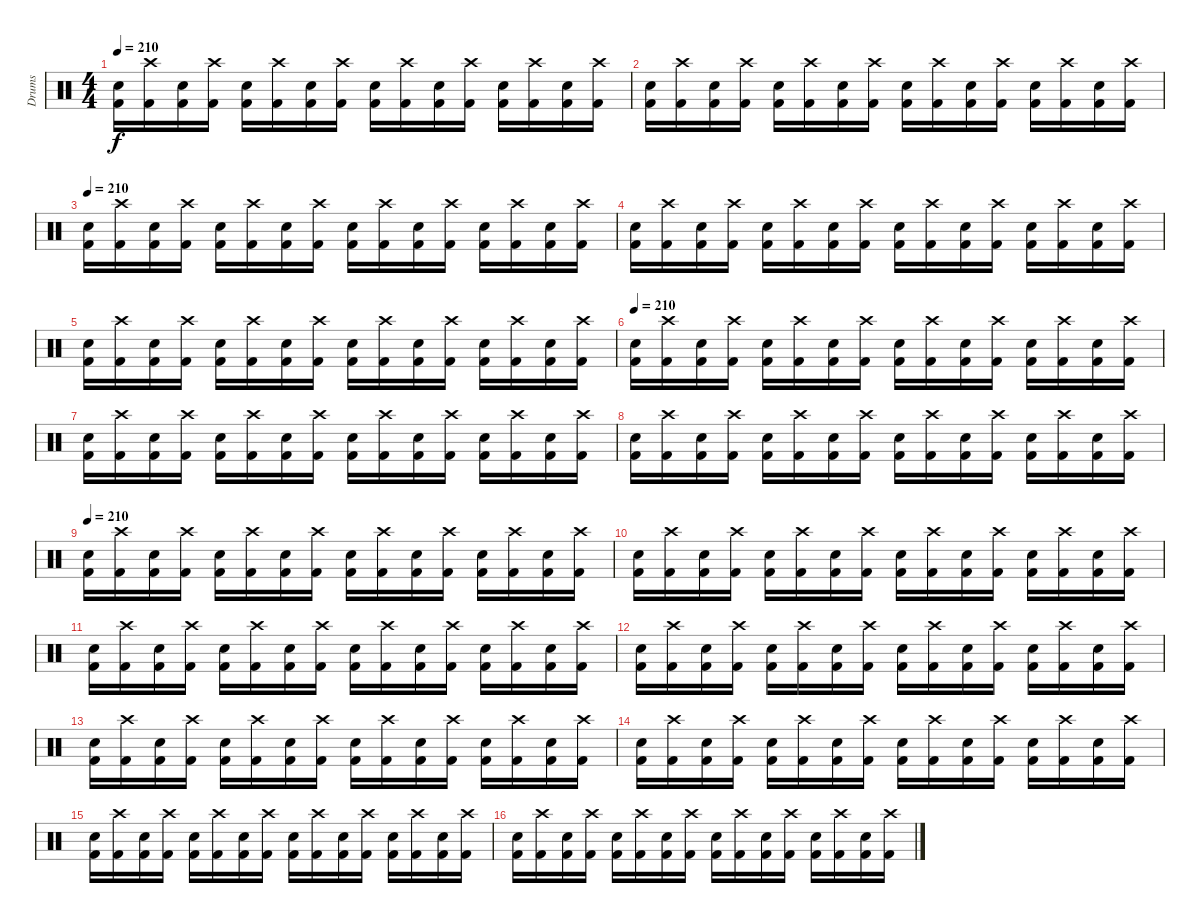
\track ("Drums" "Drums") {instrument percussion}
\staff {score}
\articulation defaults
\ts (4 4)
\tempo 210
\clef neutral
\ks c
("Snare (hit) 2" "Kick (hit) 2").16{dy f} ("Crash high (hit)" "Kick (hit) 2").16 ("Snare (hit) 2" "Kick (hit) 2").16 ("Crash high (hit)" "Kick (hit) 2").16 ("Snare (hit) 2" "Kick (hit) 2").16 ("Crash high (hit)" "Kick (hit) 2").16 ("Snare (hit) 2" "Kick (hit) 2").16 ("Crash high (hit)" "Kick (hit) 2").16 ("Snare (hit) 2" "Kick (hit) 2").16 ("Crash high (hit)" "Kick (hit) 2").16 ("Snare (hit) 2" "Kick (hit) 2").16 ("Crash high (hit)" "Kick (hit) 2").16 ("Snare (hit) 2" "Kick (hit) 2").16 ("Crash high (hit)" "Kick (hit) 2").16 ("Snare (hit) 2" "Kick (hit) 2").16 ("Crash high (hit)" "Kick (hit) 2").16 |
("Snare (hit) 2" "Kick (hit) 2").16 ("Crash high (hit)" "Kick (hit) 2").16 ("Snare (hit) 2" "Kick (hit) 2").16 ("Crash high (hit)" "Kick (hit) 2").16 ("Snare (hit) 2" "Kick (hit) 2").16 ("Crash high (hit)" "Kick (hit) 2").16 ("Snare (hit) 2" "Kick (hit) 2").16 ("Crash high (hit)" "Kick (hit) 2").16 ("Snare (hit) 2" "Kick (hit) 2").16 ("Crash high (hit)" "Kick (hit) 2").16 ("Snare (hit) 2" "Kick (hit) 2").16 ("Crash high (hit)" "Kick (hit) 2").16 ("Snare (hit) 2" "Kick (hit) 2").16 ("Crash high (hit)" "Kick (hit) 2").16 ("Snare (hit) 2" "Kick (hit) 2").16 ("Crash high (hit)" "Kick (hit) 2").16 |
\tempo 210
("Snare (hit) 2" "Kick (hit) 2").16 ("Crash high (hit)" "Kick (hit) 2").16 ("Snare (hit) 2" "Kick (hit) 2").16 ("Crash high (hit)" "Kick (hit) 2").16 ("Snare (hit) 2" "Kick (hit) 2").16 ("Crash high (hit)" "Kick (hit) 2").16 ("Snare (hit) 2" "Kick (hit) 2").16 ("Crash high (hit)" "Kick (hit) 2").16 ("Snare (hit) 2" "Kick (hit) 2").16 ("Crash high (hit)" "Kick (hit) 2").16 ("Snare (hit) 2" "Kick (hit) 2").16 ("Crash high (hit)" "Kick (hit) 2").16 ("Snare (hit) 2" "Kick (hit) 2").16 ("Crash high (hit)" "Kick (hit) 2").16 ("Snare (hit) 2" "Kick (hit) 2").16 ("Crash high (hit)" "Kick (hit) 2").16 |
("Snare (hit) 2" "Kick (hit) 2").16 ("Crash high (hit)" "Kick (hit) 2").16 ("Snare (hit) 2" "Kick (hit) 2").16 ("Crash high (hit)" "Kick (hit) 2").16 ("Snare (hit) 2" "Kick (hit) 2").16 ("Crash high (hit)" "Kick (hit) 2").16 ("Snare (hit) 2" "Kick (hit) 2").16 ("Crash high (hit)" "Kick (hit) 2").16 ("Snare (hit) 2" "Kick (hit) 2").16 ("Crash high (hit)" "Kick (hit) 2").16 ("Snare (hit) 2" "Kick (hit) 2").16 ("Crash high (hit)" "Kick (hit) 2").16 ("Snare (hit) 2" "Kick (hit) 2").16 ("Crash high (hit)" "Kick (hit) 2").16 ("Snare (hit) 2" "Kick (hit) 2").16 ("Crash high (hit)" "Kick (hit) 2").16 |
("Snare (hit) 2" "Kick (hit) 2").16 ("Crash high (hit)" "Kick (hit) 2").16 ("Snare (hit) 2" "Kick (hit) 2").16 ("Crash high (hit)" "Kick (hit) 2").16 ("Snare (hit) 2" "Kick (hit) 2").16 ("Crash high (hit)" "Kick (hit) 2").16 ("Snare (hit) 2" "Kick (hit) 2").16 ("Crash high (hit)" "Kick (hit) 2").16 ("Snare (hit) 2" "Kick (hit) 2").16 ("Crash high (hit)" "Kick (hit) 2").16 ("Snare (hit) 2" "Kick (hit) 2").16 ("Crash high (hit)" "Kick (hit) 2").16 ("Snare (hit) 2" "Kick (hit) 2").16 ("Crash high (hit)" "Kick (hit) 2").16 ("Snare (hit) 2" "Kick (hit) 2").16 ("Crash high (hit)" "Kick (hit) 2").16 |
\tempo 210
("Snare (hit) 2" "Kick (hit) 2").16 ("Crash high (hit)" "Kick (hit) 2").16 ("Snare (hit) 2" "Kick (hit) 2").16 ("Crash high (hit)" "Kick (hit) 2").16 ("Snare (hit) 2" "Kick (hit) 2").16 ("Crash high (hit)" "Kick (hit) 2").16 ("Snare (hit) 2" "Kick (hit) 2").16 ("Crash high (hit)" "Kick (hit) 2").16 ("Snare (hit) 2" "Kick (hit) 2").16 ("Crash high (hit)" "Kick (hit) 2").16 ("Snare (hit) 2" "Kick (hit) 2").16 ("Crash high (hit)" "Kick (hit) 2").16 ("Snare (hit) 2" "Kick (hit) 2").16 ("Crash high (hit)" "Kick (hit) 2").16 ("Snare (hit) 2" "Kick (hit) 2").16 ("Crash high (hit)" "Kick (hit) 2").16 |
("Snare (hit) 2" "Kick (hit) 2").16 ("Crash high (hit)" "Kick (hit) 2").16 ("Snare (hit) 2" "Kick (hit) 2").16 ("Crash high (hit)" "Kick (hit) 2").16 ("Snare (hit) 2" "Kick (hit) 2").16 ("Crash high (hit)" "Kick (hit) 2").16 ("Snare (hit) 2" "Kick (hit) 2").16 ("Crash high (hit)" "Kick (hit) 2").16 ("Snare (hit) 2" "Kick (hit) 2").16 ("Crash high (hit)" "Kick (hit) 2").16 ("Snare (hit) 2" "Kick (hit) 2").16 ("Crash high (hit)" "Kick (hit) 2").16 ("Snare (hit) 2" "Kick (hit) 2").16 ("Crash high (hit)" "Kick (hit) 2").16 ("Snare (hit) 2" "Kick (hit) 2").16 ("Crash high (hit)" "Kick (hit) 2").16 |
("Snare (hit) 2" "Kick (hit) 2").16 ("Crash high (hit)" "Kick (hit) 2").16 ("Snare (hit) 2" "Kick (hit) 2").16 ("Crash high (hit)" "Kick (hit) 2").16 ("Snare (hit) 2" "Kick (hit) 2").16 ("Crash high (hit)" "Kick (hit) 2").16 ("Snare (hit) 2" "Kick (hit) 2").16 ("Crash high (hit)" "Kick (hit) 2").16 ("Snare (hit) 2" "Kick (hit) 2").16 ("Crash high (hit)" "Kick (hit) 2").16 ("Snare (hit) 2" "Kick (hit) 2").16 ("Crash high (hit)" "Kick (hit) 2").16 ("Snare (hit) 2" "Kick (hit) 2").16 ("Crash high (hit)" "Kick (hit) 2").16 ("Snare (hit) 2" "Kick (hit) 2").16 ("Crash high (hit)" "Kick (hit) 2").16 |
\tempo 210
("Snare (hit) 2" "Kick (hit) 2").16 ("Crash high (hit)" "Kick (hit) 2").16 ("Snare (hit) 2" "Kick (hit) 2").16 ("Crash high (hit)" "Kick (hit) 2").16 ("Snare (hit) 2" "Kick (hit) 2").16 ("Crash high (hit)" "Kick (hit) 2").16 ("Snare (hit) 2" "Kick (hit) 2").16 ("Crash high (hit)" "Kick (hit) 2").16 ("Snare (hit) 2" "Kick (hit) 2").16 ("Crash high (hit)" "Kick (hit) 2").16 ("Snare (hit) 2" "Kick (hit) 2").16 ("Crash high (hit)" "Kick (hit) 2").16 ("Snare (hit) 2" "Kick (hit) 2").16 ("Crash high (hit)" "Kick (hit) 2").16 ("Snare (hit) 2" "Kick (hit) 2").16 ("Crash high (hit)" "Kick (hit) 2").16 |
("Snare (hit) 2" "Kick (hit) 2").16 ("Crash high (hit)" "Kick (hit) 2").16 ("Snare (hit) 2" "Kick (hit) 2").16 ("Crash high (hit)" "Kick (hit) 2").16 ("Snare (hit) 2" "Kick (hit) 2").16 ("Crash high (hit)" "Kick (hit) 2").16 ("Snare (hit) 2" "Kick (hit) 2").16 ("Crash high (hit)" "Kick (hit) 2").16 ("Snare (hit) 2" "Kick (hit) 2").16 ("Crash high (hit)" "Kick (hit) 2").16 ("Snare (hit) 2" "Kick (hit) 2").16 ("Crash high (hit)" "Kick (hit) 2").16 ("Snare (hit) 2" "Kick (hit) 2").16 ("Crash high (hit)" "Kick (hit) 2").16 ("Snare (hit) 2" "Kick (hit) 2").16 ("Crash high (hit)" "Kick (hit) 2").16 |
("Snare (hit) 2" "Kick (hit) 2").16 ("Crash high (hit)" "Kick (hit) 2").16 ("Snare (hit) 2" "Kick (hit) 2").16 ("Crash high (hit)" "Kick (hit) 2").16 ("Snare (hit) 2" "Kick (hit) 2").16 ("Crash high (hit)" "Kick (hit) 2").16 ("Snare (hit) 2" "Kick (hit) 2").16 ("Crash high (hit)" "Kick (hit) 2").16 ("Snare (hit) 2" "Kick (hit) 2").16 ("Crash high (hit)" "Kick (hit) 2").16 ("Snare (hit) 2" "Kick (hit) 2").16 ("Crash high (hit)" "Kick (hit) 2").16 ("Snare (hit) 2" "Kick (hit) 2").16 ("Crash high (hit)" "Kick (hit) 2").16 ("Snare (hit) 2" "Kick (hit) 2").16 ("Crash high (hit)" "Kick (hit) 2").16 |
("Snare (hit) 2" "Kick (hit) 2").16 ("Crash high (hit)" "Kick (hit) 2").16 ("Snare (hit) 2" "Kick (hit) 2").16 ("Crash high (hit)" "Kick (hit) 2").16 ("Snare (hit) 2" "Kick (hit) 2").16 ("Crash high (hit)" "Kick (hit) 2").16 ("Snare (hit) 2" "Kick (hit) 2").16 ("Crash high (hit)" "Kick (hit) 2").16 ("Snare (hit) 2" "Kick (hit) 2").16 ("Crash high (hit)" "Kick (hit) 2").16 ("Snare (hit) 2" "Kick (hit) 2").16 ("Crash high (hit)" "Kick (hit) 2").16 ("Snare (hit) 2" "Kick (hit) 2").16 ("Crash high (hit)" "Kick (hit) 2").16 ("Snare (hit) 2" "Kick (hit) 2").16 ("Crash high (hit)" "Kick (hit) 2").16 |
("Snare (hit) 2" "Kick (hit) 2").16 ("Crash high (hit)" "Kick (hit) 2").16 ("Snare (hit) 2" "Kick (hit) 2").16 ("Crash high (hit)" "Kick (hit) 2").16 ("Snare (hit) 2" "Kick (hit) 2").16 ("Crash high (hit)" "Kick (hit) 2").16 ("Snare (hit) 2" "Kick (hit) 2").16 ("Crash high (hit)" "Kick (hit) 2").16 ("Snare (hit) 2" "Kick (hit) 2").16 ("Crash high (hit)" "Kick (hit) 2").16 ("Snare (hit) 2" "Kick (hit) 2").16 ("Crash high (hit)" "Kick (hit) 2").16 ("Snare (hit) 2" "Kick (hit) 2").16 ("Crash high (hit)" "Kick (hit) 2").16 ("Snare (hit) 2" "Kick (hit) 2").16 ("Crash high (hit)" "Kick (hit) 2").16 |
("Snare (hit) 2" "Kick (hit) 2").16 ("Crash high (hit)" "Kick (hit) 2").16 ("Snare (hit) 2" "Kick (hit) 2").16 ("Crash high (hit)" "Kick (hit) 2").16 ("Snare (hit) 2" "Kick (hit) 2").16 ("Crash high (hit)" "Kick (hit) 2").16 ("Snare (hit) 2" "Kick (hit) 2").16 ("Crash high (hit)" "Kick (hit) 2").16 ("Snare (hit) 2" "Kick (hit) 2").16 ("Crash high (hit)" "Kick (hit) 2").16 ("Snare (hit) 2" "Kick (hit) 2").16 ("Crash high (hit)" "Kick (hit) 2").16 ("Snare (hit) 2" "Kick (hit) 2").16 ("Crash high (hit)" "Kick (hit) 2").16 ("Snare (hit) 2" "Kick (hit) 2").16 ("Crash high (hit)" "Kick (hit) 2").16 |
("Snare (hit) 2" "Kick (hit) 2").16 ("Crash high (hit)" "Kick (hit) 2").16 ("Snare (hit) 2" "Kick (hit) 2").16 ("Crash high (hit)" "Kick (hit) 2").16 ("Snare (hit) 2" "Kick (hit) 2").16 ("Crash high (hit)" "Kick (hit) 2").16 ("Snare (hit) 2" "Kick (hit) 2").16 ("Crash high (hit)" "Kick (hit) 2").16 ("Snare (hit) 2" "Kick (hit) 2").16 ("Crash high (hit)" "Kick (hit) 2").16 ("Snare (hit) 2" "Kick (hit) 2").16 ("Crash high (hit)" "Kick (hit) 2").16 ("Snare (hit) 2" "Kick (hit) 2").16 ("Crash high (hit)" "Kick (hit) 2").16 ("Snare (hit) 2" "Kick (hit) 2").16 ("Crash high (hit)" "Kick (hit) 2").16 |
("Snare (hit) 2" "Kick (hit) 2").16 ("Crash high (hit)" "Kick (hit) 2").16 ("Snare (hit) 2" "Kick (hit) 2").16 ("Crash high (hit)" "Kick (hit) 2").16 ("Snare (hit) 2" "Kick (hit) 2").16 ("Crash high (hit)" "Kick (hit) 2").16 ("Snare (hit) 2" "Kick (hit) 2").16 ("Crash high (hit)" "Kick (hit) 2").16 ("Snare (hit) 2" "Kick (hit) 2").16 ("Crash high (hit)" "Kick (hit) 2").16 ("Snare (hit) 2" "Kick (hit) 2").16 ("Crash high (hit)" "Kick (hit) 2").16 ("Snare (hit) 2" "Kick (hit) 2").16 ("Crash high (hit)" "Kick (hit) 2").16 ("Snare (hit) 2" "Kick (hit) 2").16 ("Crash high (hit)" "Kick (hit) 2").16
